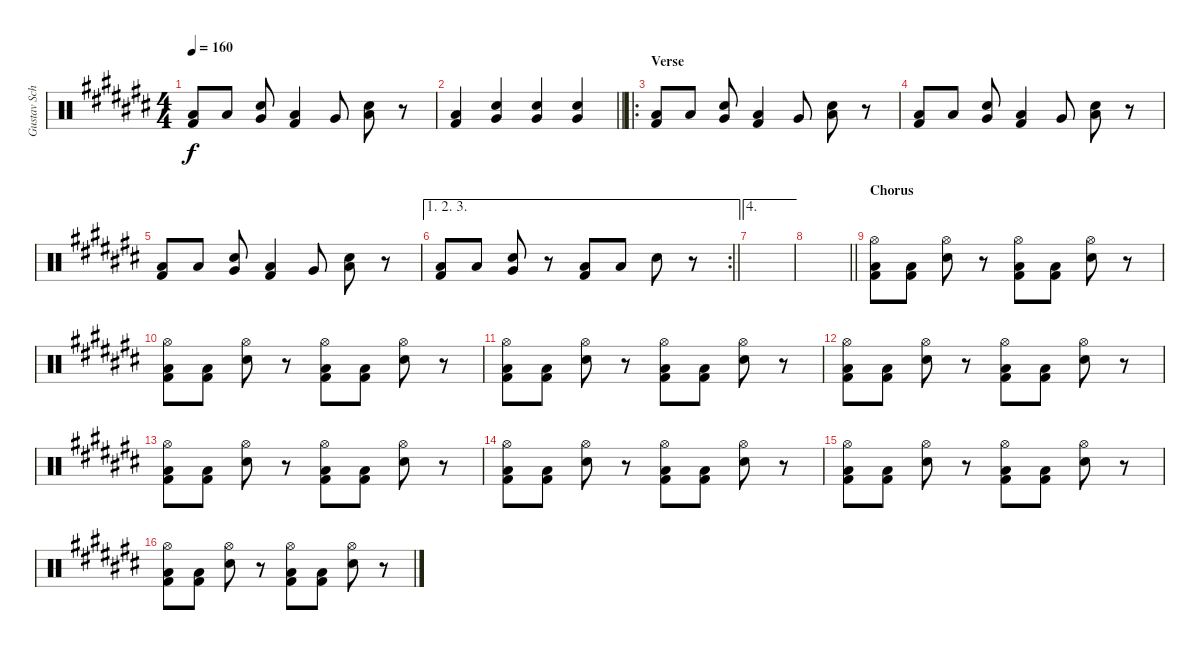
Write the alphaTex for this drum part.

\track ("Gustav Schäfer" "Gustav Sch") {instrument percussion}
\staff {score}
\articulation defaults
\ts (4 4)
\tempo 160
\clef neutral
\ks c#
("Low Floor Tom (hit)" "Kick (hit) 2").8{dy f} "Low Floor Tom (hit)".8 ("Electric Snare (hit)" "Very Low Tom (hit)").8 ("Low Floor Tom (hit)" "Kick (hit) 2").4 "Very Low Tom (hit)".8 ("Electric Snare (hit)" "Low Floor Tom (hit)").8 r.8 |
\barLineRight lightlight
("Low Floor Tom (hit)" "Kick (hit) 2").4 ("Electric Snare (hit)" "Very Low Tom (hit)").4 ("Electric Snare (hit)" "Very Low Tom (hit)").4 ("Electric Snare (hit)" "Very Low Tom (hit)").4 |
\ro
\section ("" "Verse")
("Low Floor Tom (hit)" "Kick (hit) 2").8 "Low Floor Tom (hit)".8 ("Electric Snare (hit)" "Very Low Tom (hit)").8 ("Low Floor Tom (hit)" "Kick (hit) 2").4 "Very Low Tom (hit)".8 ("Electric Snare (hit)" "Low Floor Tom (hit)").8 r.8 |
("Low Floor Tom (hit)" "Kick (hit) 2").8 "Low Floor Tom (hit)".8 ("Electric Snare (hit)" "Very Low Tom (hit)").8 ("Low Floor Tom (hit)" "Kick (hit) 2").4 "Very Low Tom (hit)".8 ("Electric Snare (hit)" "Low Floor Tom (hit)").8 r.8 |
("Low Floor Tom (hit)" "Kick (hit) 2").8 "Low Floor Tom (hit)".8 ("Electric Snare (hit)" "Very Low Tom (hit)").8 ("Low Floor Tom (hit)" "Kick (hit) 2").4 "Very Low Tom (hit)".8 ("Electric Snare (hit)" "Low Floor Tom (hit)").8 r.8 |
\ae (1 2 3)
\rc 2
\barLineRight lightlight
("Low Floor Tom (hit)" "Kick (hit) 2").8 "Low Floor Tom (hit)".8 ("Electric Snare (hit)" "Very Low Tom (hit)").8 r.8 ("Low Floor Tom (hit)" "Kick (hit) 2").8 "Low Floor Tom (hit)".8 "Electric Snare (hit)".8 r.8 |
\ae 4
|
\barLineRight lightlight
|
\section ("" "Chorus")
("Low Floor Tom (hit)" "Kick (hit) 2" "Hi-Hat (open)").8 ("Low Floor Tom (hit)" "Kick (hit) 2").8 ("Electric Snare (hit)" "Hi-Hat (open)").8 r.8 ("Low Floor Tom (hit)" "Kick (hit) 2" "Hi-Hat (open)").8 ("Low Floor Tom (hit)" "Kick (hit) 2").8 ("Electric Snare (hit)" "Hi-Hat (open)").8 r.8 |
("Low Floor Tom (hit)" "Kick (hit) 2" "Hi-Hat (open)").8 ("Low Floor Tom (hit)" "Kick (hit) 2").8 ("Electric Snare (hit)" "Hi-Hat (open)").8 r.8 ("Low Floor Tom (hit)" "Kick (hit) 2" "Hi-Hat (open)").8 ("Low Floor Tom (hit)" "Kick (hit) 2").8 ("Electric Snare (hit)" "Hi-Hat (open)").8 r.8 |
("Low Floor Tom (hit)" "Kick (hit) 2" "Hi-Hat (open)").8 ("Low Floor Tom (hit)" "Kick (hit) 2").8 ("Electric Snare (hit)" "Hi-Hat (open)").8 r.8 ("Low Floor Tom (hit)" "Kick (hit) 2" "Hi-Hat (open)").8 ("Low Floor Tom (hit)" "Kick (hit) 2").8 ("Electric Snare (hit)" "Hi-Hat (open)").8 r.8 |
("Low Floor Tom (hit)" "Kick (hit) 2" "Hi-Hat (open)").8 ("Low Floor Tom (hit)" "Kick (hit) 2").8 ("Electric Snare (hit)" "Hi-Hat (open)").8 r.8 ("Low Floor Tom (hit)" "Kick (hit) 2" "Hi-Hat (open)").8 ("Low Floor Tom (hit)" "Kick (hit) 2").8 ("Electric Snare (hit)" "Hi-Hat (open)").8 r.8 |
("Low Floor Tom (hit)" "Kick (hit) 2" "Hi-Hat (open)").8 ("Low Floor Tom (hit)" "Kick (hit) 2").8 ("Electric Snare (hit)" "Hi-Hat (open)").8 r.8 ("Low Floor Tom (hit)" "Kick (hit) 2" "Hi-Hat (open)").8 ("Low Floor Tom (hit)" "Kick (hit) 2").8 ("Electric Snare (hit)" "Hi-Hat (open)").8 r.8 |
("Low Floor Tom (hit)" "Kick (hit) 2" "Hi-Hat (open)").8 ("Low Floor Tom (hit)" "Kick (hit) 2").8 ("Electric Snare (hit)" "Hi-Hat (open)").8 r.8 ("Low Floor Tom (hit)" "Kick (hit) 2" "Hi-Hat (open)").8 ("Low Floor Tom (hit)" "Kick (hit) 2").8 ("Electric Snare (hit)" "Hi-Hat (open)").8 r.8 |
("Low Floor Tom (hit)" "Kick (hit) 2" "Hi-Hat (open)").8 ("Low Floor Tom (hit)" "Kick (hit) 2").8 ("Electric Snare (hit)" "Hi-Hat (open)").8 r.8 ("Low Floor Tom (hit)" "Kick (hit) 2" "Hi-Hat (open)").8 ("Low Floor Tom (hit)" "Kick (hit) 2").8 ("Electric Snare (hit)" "Hi-Hat (open)").8 r.8 |
("Low Floor Tom (hit)" "Kick (hit) 2" "Hi-Hat (open)").8 ("Low Floor Tom (hit)" "Kick (hit) 2").8 ("Electric Snare (hit)" "Hi-Hat (open)").8 r.8 ("Low Floor Tom (hit)" "Kick (hit) 2" "Hi-Hat (open)").8 ("Low Floor Tom (hit)" "Kick (hit) 2").8 ("Electric Snare (hit)" "Hi-Hat (open)").8 r.8
